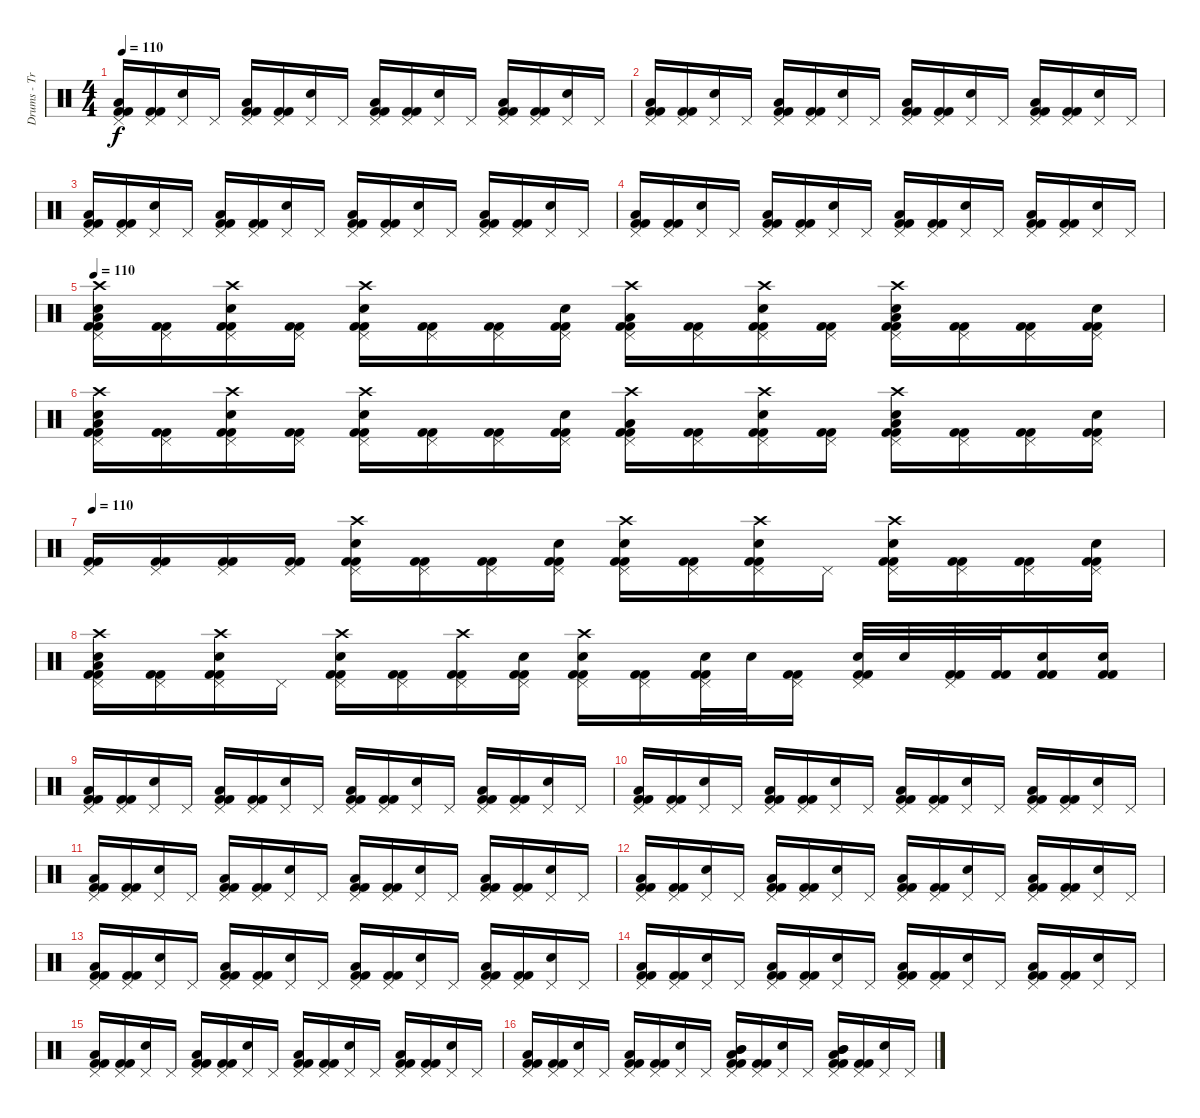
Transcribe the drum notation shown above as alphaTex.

\track ("Drums - Travis Barker" "Drums - Tr") {instrument percussion}
\staff {score}
\articulation defaults
\ts (4 4)
\tempo 110
\clef neutral
\ks c
("Pedal Hi-Hat (hit)" "Low Tom (hit)" "Kick (hit) 2" "Kick (hit) 2").16{dy f} ("Pedal Hi-Hat (hit)" "Kick (hit) 2" "Kick (hit) 2").16 ("Pedal Hi-Hat (hit)" "Electric Snare (hit)").16 "Pedal Hi-Hat (hit)".16 ("Pedal Hi-Hat (hit)" "Low Tom (hit)" "Kick (hit) 2" "Kick (hit) 2").16 ("Pedal Hi-Hat (hit)" "Kick (hit) 2" "Kick (hit) 2").16 ("Pedal Hi-Hat (hit)" "Electric Snare (hit)").16 "Pedal Hi-Hat (hit)".16 ("Pedal Hi-Hat (hit)" "Low Tom (hit)" "Kick (hit) 2" "Kick (hit) 2").16 ("Pedal Hi-Hat (hit)" "Kick (hit) 2" "Kick (hit) 2").16 ("Pedal Hi-Hat (hit)" "Electric Snare (hit)").16 "Pedal Hi-Hat (hit)".16 ("Pedal Hi-Hat (hit)" "Low Tom (hit)" "Kick (hit) 2" "Kick (hit) 2").16 ("Pedal Hi-Hat (hit)" "Kick (hit) 2" "Kick (hit) 2").16 ("Pedal Hi-Hat (hit)" "Electric Snare (hit)").16 "Pedal Hi-Hat (hit)".16 |
("Pedal Hi-Hat (hit)" "Low Tom (hit)" "Kick (hit) 2" "Kick (hit) 2").16 ("Pedal Hi-Hat (hit)" "Kick (hit) 2" "Kick (hit) 2").16 ("Pedal Hi-Hat (hit)" "Electric Snare (hit)").16 "Pedal Hi-Hat (hit)".16 ("Pedal Hi-Hat (hit)" "Low Tom (hit)" "Kick (hit) 2" "Kick (hit) 2").16 ("Pedal Hi-Hat (hit)" "Kick (hit) 2" "Kick (hit) 2").16 ("Pedal Hi-Hat (hit)" "Electric Snare (hit)").16 "Pedal Hi-Hat (hit)".16 ("Pedal Hi-Hat (hit)" "Low Tom (hit)" "Kick (hit) 2" "Kick (hit) 2").16 ("Pedal Hi-Hat (hit)" "Kick (hit) 2" "Kick (hit) 2").16 ("Pedal Hi-Hat (hit)" "Electric Snare (hit)").16 "Pedal Hi-Hat (hit)".16 ("Pedal Hi-Hat (hit)" "Low Tom (hit)" "Kick (hit) 2" "Kick (hit) 2").16 ("Pedal Hi-Hat (hit)" "Kick (hit) 2" "Kick (hit) 2").16 ("Pedal Hi-Hat (hit)" "Electric Snare (hit)").16 "Pedal Hi-Hat (hit)".16 |
("Pedal Hi-Hat (hit)" "Low Tom (hit)" "Kick (hit) 2" "Kick (hit) 2").16 ("Pedal Hi-Hat (hit)" "Kick (hit) 2" "Kick (hit) 2").16 ("Pedal Hi-Hat (hit)" "Electric Snare (hit)").16 "Pedal Hi-Hat (hit)".16 ("Pedal Hi-Hat (hit)" "Low Tom (hit)" "Kick (hit) 2" "Kick (hit) 2").16 ("Pedal Hi-Hat (hit)" "Kick (hit) 2" "Kick (hit) 2").16 ("Pedal Hi-Hat (hit)" "Electric Snare (hit)").16 "Pedal Hi-Hat (hit)".16 ("Pedal Hi-Hat (hit)" "Low Tom (hit)" "Kick (hit) 2" "Kick (hit) 2").16 ("Pedal Hi-Hat (hit)" "Kick (hit) 2" "Kick (hit) 2").16 ("Pedal Hi-Hat (hit)" "Electric Snare (hit)").16 "Pedal Hi-Hat (hit)".16 ("Pedal Hi-Hat (hit)" "Low Tom (hit)" "Kick (hit) 2" "Kick (hit) 2").16 ("Pedal Hi-Hat (hit)" "Kick (hit) 2" "Kick (hit) 2").16 ("Pedal Hi-Hat (hit)" "Electric Snare (hit)").16 "Pedal Hi-Hat (hit)".16 |
("Pedal Hi-Hat (hit)" "Low Tom (hit)" "Kick (hit) 2" "Kick (hit) 2").16 ("Pedal Hi-Hat (hit)" "Kick (hit) 2" "Kick (hit) 2").16 ("Pedal Hi-Hat (hit)" "Electric Snare (hit)").16 "Pedal Hi-Hat (hit)".16 ("Pedal Hi-Hat (hit)" "Low Tom (hit)" "Kick (hit) 2" "Kick (hit) 2").16 ("Pedal Hi-Hat (hit)" "Kick (hit) 2" "Kick (hit) 2").16 ("Pedal Hi-Hat (hit)" "Electric Snare (hit)").16 "Pedal Hi-Hat (hit)".16 ("Pedal Hi-Hat (hit)" "Low Tom (hit)" "Kick (hit) 2" "Kick (hit) 2").16 ("Pedal Hi-Hat (hit)" "Kick (hit) 2" "Kick (hit) 2").16 ("Pedal Hi-Hat (hit)" "Electric Snare (hit)").16 "Pedal Hi-Hat (hit)".16 ("Pedal Hi-Hat (hit)" "Low Tom (hit)" "Kick (hit) 2" "Kick (hit) 2").16 ("Pedal Hi-Hat (hit)" "Kick (hit) 2" "Kick (hit) 2").16 ("Pedal Hi-Hat (hit)" "Electric Snare (hit)").16 "Pedal Hi-Hat (hit)".16 |
\tempo 110
("Pedal Hi-Hat (hit)" "Crash high (hit)" "Low Tom (hit)" "Electric Snare (hit)" "Kick (hit) 2" "Kick (hit) 2").16 ("Pedal Hi-Hat (hit)" "Kick (hit) 2" "Kick (hit) 2").16 ("Pedal Hi-Hat (hit)" "Crash high (hit)" "Electric Snare (hit)" "Kick (hit) 2" "Kick (hit) 2").16 ("Pedal Hi-Hat (hit)" "Kick (hit) 2" "Kick (hit) 2").16 ("Pedal Hi-Hat (hit)" "Crash high (hit)" "Electric Snare (hit)" "Kick (hit) 2" "Kick (hit) 2").16 ("Pedal Hi-Hat (hit)" "Kick (hit) 2" "Kick (hit) 2").16 ("Pedal Hi-Hat (hit)" "Kick (hit) 2" "Kick (hit) 2").16 ("Pedal Hi-Hat (hit)" "Electric Snare (hit)" "Kick (hit) 2" "Kick (hit) 2").16 ("Pedal Hi-Hat (hit)" "Crash high (hit)" "Low Tom (hit)" "Kick (hit) 2" "Kick (hit) 2").16 ("Pedal Hi-Hat (hit)" "Kick (hit) 2" "Kick (hit) 2").16 ("Pedal Hi-Hat (hit)" "Crash high (hit)" "Electric Snare (hit)" "Kick (hit) 2" "Kick (hit) 2").16 ("Pedal Hi-Hat (hit)" "Kick (hit) 2" "Kick (hit) 2").16 ("Pedal Hi-Hat (hit)" "Crash high (hit)" "Low Tom (hit)" "Electric Snare (hit)" "Kick (hit) 2" "Kick (hit) 2").16 ("Pedal Hi-Hat (hit)" "Kick (hit) 2" "Kick (hit) 2").16 ("Pedal Hi-Hat (hit)" "Kick (hit) 2" "Kick (hit) 2").16 ("Pedal Hi-Hat (hit)" "Electric Snare (hit)" "Kick (hit) 2" "Kick (hit) 2").16 |
("Pedal Hi-Hat (hit)" "Crash high (hit)" "Low Tom (hit)" "Electric Snare (hit)" "Kick (hit) 2" "Kick (hit) 2").16 ("Pedal Hi-Hat (hit)" "Kick (hit) 2" "Kick (hit) 2").16 ("Pedal Hi-Hat (hit)" "Crash high (hit)" "Electric Snare (hit)" "Kick (hit) 2" "Kick (hit) 2").16 ("Pedal Hi-Hat (hit)" "Kick (hit) 2" "Kick (hit) 2").16 ("Pedal Hi-Hat (hit)" "Crash high (hit)" "Electric Snare (hit)" "Kick (hit) 2" "Kick (hit) 2").16 ("Pedal Hi-Hat (hit)" "Kick (hit) 2" "Kick (hit) 2").16 ("Pedal Hi-Hat (hit)" "Kick (hit) 2" "Kick (hit) 2").16 ("Pedal Hi-Hat (hit)" "Electric Snare (hit)" "Kick (hit) 2" "Kick (hit) 2").16 ("Pedal Hi-Hat (hit)" "Crash high (hit)" "Low Tom (hit)" "Kick (hit) 2" "Kick (hit) 2").16 ("Pedal Hi-Hat (hit)" "Kick (hit) 2" "Kick (hit) 2").16 ("Pedal Hi-Hat (hit)" "Crash high (hit)" "Electric Snare (hit)" "Kick (hit) 2" "Kick (hit) 2").16 ("Pedal Hi-Hat (hit)" "Kick (hit) 2" "Kick (hit) 2").16 ("Pedal Hi-Hat (hit)" "Crash high (hit)" "Low Tom (hit)" "Electric Snare (hit)" "Kick (hit) 2" "Kick (hit) 2").16 ("Pedal Hi-Hat (hit)" "Kick (hit) 2" "Kick (hit) 2").16 ("Pedal Hi-Hat (hit)" "Kick (hit) 2" "Kick (hit) 2").16 ("Pedal Hi-Hat (hit)" "Electric Snare (hit)" "Kick (hit) 2" "Kick (hit) 2").16 |
\tempo 110
("Pedal Hi-Hat (hit)" "Kick (hit) 2" "Kick (hit) 2").16 ("Pedal Hi-Hat (hit)" "Kick (hit) 2" "Kick (hit) 2").16 ("Pedal Hi-Hat (hit)" "Kick (hit) 2" "Kick (hit) 2").16 ("Pedal Hi-Hat (hit)" "Kick (hit) 2" "Kick (hit) 2").16 ("Pedal Hi-Hat (hit)" "Crash high (hit)" "Electric Snare (hit)" "Kick (hit) 2" "Kick (hit) 2").16 ("Pedal Hi-Hat (hit)" "Kick (hit) 2" "Kick (hit) 2").16 ("Pedal Hi-Hat (hit)" "Kick (hit) 2" "Kick (hit) 2").16 ("Pedal Hi-Hat (hit)" "Electric Snare (hit)" "Kick (hit) 2" "Kick (hit) 2").16 ("Pedal Hi-Hat (hit)" "Crash high (hit)" "Electric Snare (hit)" "Kick (hit) 2" "Kick (hit) 2").16 ("Pedal Hi-Hat (hit)" "Kick (hit) 2" "Kick (hit) 2").16 ("Pedal Hi-Hat (hit)" "Crash high (hit)" "Electric Snare (hit)" "Kick (hit) 2" "Kick (hit) 2").16 "Pedal Hi-Hat (hit)".16 ("Pedal Hi-Hat (hit)" "Crash high (hit)" "Electric Snare (hit)" "Kick (hit) 2" "Kick (hit) 2").16 ("Pedal Hi-Hat (hit)" "Kick (hit) 2" "Kick (hit) 2").16 ("Pedal Hi-Hat (hit)" "Kick (hit) 2" "Kick (hit) 2").16 ("Pedal Hi-Hat (hit)" "Electric Snare (hit)" "Kick (hit) 2" "Kick (hit) 2").16 |
("Pedal Hi-Hat (hit)" "Crash high (hit)" "Low Tom (hit)" "Electric Snare (hit)" "Kick (hit) 2" "Kick (hit) 2").16 ("Pedal Hi-Hat (hit)" "Kick (hit) 2" "Kick (hit) 2").16 ("Pedal Hi-Hat (hit)" "Crash high (hit)" "Electric Snare (hit)" "Kick (hit) 2" "Kick (hit) 2").16 "Pedal Hi-Hat (hit)".16 ("Pedal Hi-Hat (hit)" "Crash high (hit)" "Electric Snare (hit)" "Kick (hit) 2" "Kick (hit) 2").16 ("Pedal Hi-Hat (hit)" "Kick (hit) 2" "Kick (hit) 2").16 ("Pedal Hi-Hat (hit)" "Crash high (hit)" "Kick (hit) 2" "Kick (hit) 2").16 ("Pedal Hi-Hat (hit)" "Electric Snare (hit)" "Kick (hit) 2" "Kick (hit) 2").16 ("Pedal Hi-Hat (hit)" "Crash high (hit)" "Electric Snare (hit)" "Kick (hit) 2" "Kick (hit) 2").16 ("Pedal Hi-Hat (hit)" "Kick (hit) 2" "Kick (hit) 2").16 ("Pedal Hi-Hat (hit)" "Electric Snare (hit)" "Kick (hit) 2" "Kick (hit) 2").32 "Electric Snare (hit)".32 ("Pedal Hi-Hat (hit)" "Kick (hit) 2" "Kick (hit) 2").16 ("Pedal Hi-Hat (hit)" "Electric Snare (hit)" "Kick (hit) 2" "Kick (hit) 2").32 "Electric Snare (hit)".32 ("Pedal Hi-Hat (hit)" "Kick (hit) 2" "Kick (hit) 2").32 ("Kick (hit) 2" "Kick (hit) 2").32 ("Electric Snare (hit)" "Kick (hit) 2" "Kick (hit) 2").16 ("Electric Snare (hit)" "Kick (hit) 2" "Kick (hit) 2").16 |
("Pedal Hi-Hat (hit)" "Low Tom (hit)" "Kick (hit) 2" "Kick (hit) 2").16 ("Pedal Hi-Hat (hit)" "Kick (hit) 2" "Kick (hit) 2").16 ("Pedal Hi-Hat (hit)" "Electric Snare (hit)").16 "Pedal Hi-Hat (hit)".16 ("Pedal Hi-Hat (hit)" "Low Tom (hit)" "Kick (hit) 2" "Kick (hit) 2").16 ("Pedal Hi-Hat (hit)" "Kick (hit) 2" "Kick (hit) 2").16 ("Pedal Hi-Hat (hit)" "Electric Snare (hit)").16 "Pedal Hi-Hat (hit)".16 ("Pedal Hi-Hat (hit)" "Low Tom (hit)" "Kick (hit) 2" "Kick (hit) 2").16 ("Pedal Hi-Hat (hit)" "Kick (hit) 2" "Kick (hit) 2").16 ("Pedal Hi-Hat (hit)" "Electric Snare (hit)").16 "Pedal Hi-Hat (hit)".16 ("Pedal Hi-Hat (hit)" "Low Tom (hit)" "Kick (hit) 2" "Kick (hit) 2").16 ("Pedal Hi-Hat (hit)" "Kick (hit) 2" "Kick (hit) 2").16 ("Pedal Hi-Hat (hit)" "Electric Snare (hit)").16 "Pedal Hi-Hat (hit)".16 |
("Pedal Hi-Hat (hit)" "Low Tom (hit)" "Kick (hit) 2" "Kick (hit) 2").16 ("Pedal Hi-Hat (hit)" "Kick (hit) 2" "Kick (hit) 2").16 ("Pedal Hi-Hat (hit)" "Electric Snare (hit)").16 "Pedal Hi-Hat (hit)".16 ("Pedal Hi-Hat (hit)" "Low Tom (hit)" "Kick (hit) 2" "Kick (hit) 2").16 ("Pedal Hi-Hat (hit)" "Kick (hit) 2" "Kick (hit) 2").16 ("Pedal Hi-Hat (hit)" "Electric Snare (hit)").16 "Pedal Hi-Hat (hit)".16 ("Pedal Hi-Hat (hit)" "Low Tom (hit)" "Kick (hit) 2" "Kick (hit) 2").16 ("Pedal Hi-Hat (hit)" "Kick (hit) 2" "Kick (hit) 2").16 ("Pedal Hi-Hat (hit)" "Electric Snare (hit)").16 "Pedal Hi-Hat (hit)".16 ("Pedal Hi-Hat (hit)" "Low Tom (hit)" "Kick (hit) 2" "Kick (hit) 2").16 ("Pedal Hi-Hat (hit)" "Kick (hit) 2" "Kick (hit) 2").16 ("Pedal Hi-Hat (hit)" "Electric Snare (hit)").16 "Pedal Hi-Hat (hit)".16 |
("Pedal Hi-Hat (hit)" "Low Tom (hit)" "Kick (hit) 2" "Kick (hit) 2").16 ("Pedal Hi-Hat (hit)" "Kick (hit) 2" "Kick (hit) 2").16 ("Pedal Hi-Hat (hit)" "Electric Snare (hit)").16 "Pedal Hi-Hat (hit)".16 ("Pedal Hi-Hat (hit)" "Low Tom (hit)" "Kick (hit) 2" "Kick (hit) 2").16 ("Pedal Hi-Hat (hit)" "Kick (hit) 2" "Kick (hit) 2").16 ("Pedal Hi-Hat (hit)" "Electric Snare (hit)").16 "Pedal Hi-Hat (hit)".16 ("Pedal Hi-Hat (hit)" "Low Tom (hit)" "Kick (hit) 2" "Kick (hit) 2").16 ("Pedal Hi-Hat (hit)" "Kick (hit) 2" "Kick (hit) 2").16 ("Pedal Hi-Hat (hit)" "Electric Snare (hit)").16 "Pedal Hi-Hat (hit)".16 ("Pedal Hi-Hat (hit)" "Low Tom (hit)" "Kick (hit) 2" "Kick (hit) 2").16 ("Pedal Hi-Hat (hit)" "Kick (hit) 2" "Kick (hit) 2").16 ("Pedal Hi-Hat (hit)" "Electric Snare (hit)").16 "Pedal Hi-Hat (hit)".16 |
("Pedal Hi-Hat (hit)" "Low Tom (hit)" "Kick (hit) 2" "Kick (hit) 2").16 ("Pedal Hi-Hat (hit)" "Kick (hit) 2" "Kick (hit) 2").16 ("Pedal Hi-Hat (hit)" "Electric Snare (hit)").16 "Pedal Hi-Hat (hit)".16 ("Pedal Hi-Hat (hit)" "Low Tom (hit)" "Kick (hit) 2" "Kick (hit) 2").16 ("Pedal Hi-Hat (hit)" "Kick (hit) 2" "Kick (hit) 2").16 ("Pedal Hi-Hat (hit)" "Electric Snare (hit)").16 "Pedal Hi-Hat (hit)".16 ("Pedal Hi-Hat (hit)" "Low Tom (hit)" "Kick (hit) 2" "Kick (hit) 2").16 ("Pedal Hi-Hat (hit)" "Kick (hit) 2" "Kick (hit) 2").16 ("Pedal Hi-Hat (hit)" "Electric Snare (hit)").16 "Pedal Hi-Hat (hit)".16 ("Pedal Hi-Hat (hit)" "Low Tom (hit)" "Kick (hit) 2" "Kick (hit) 2").16 ("Pedal Hi-Hat (hit)" "Kick (hit) 2" "Kick (hit) 2").16 ("Pedal Hi-Hat (hit)" "Electric Snare (hit)").16 "Pedal Hi-Hat (hit)".16 |
("Pedal Hi-Hat (hit)" "Low Tom (hit)" "Kick (hit) 2" "Kick (hit) 2").16 ("Pedal Hi-Hat (hit)" "Kick (hit) 2" "Kick (hit) 2").16 ("Pedal Hi-Hat (hit)" "Electric Snare (hit)").16 "Pedal Hi-Hat (hit)".16 ("Pedal Hi-Hat (hit)" "Low Tom (hit)" "Kick (hit) 2" "Kick (hit) 2").16 ("Pedal Hi-Hat (hit)" "Kick (hit) 2" "Kick (hit) 2").16 ("Pedal Hi-Hat (hit)" "Electric Snare (hit)").16 "Pedal Hi-Hat (hit)".16 ("Pedal Hi-Hat (hit)" "Low Tom (hit)" "Kick (hit) 2" "Kick (hit) 2").16 ("Pedal Hi-Hat (hit)" "Kick (hit) 2" "Kick (hit) 2").16 ("Pedal Hi-Hat (hit)" "Electric Snare (hit)").16 "Pedal Hi-Hat (hit)".16 ("Pedal Hi-Hat (hit)" "Low Tom (hit)" "Kick (hit) 2" "Kick (hit) 2").16 ("Pedal Hi-Hat (hit)" "Kick (hit) 2" "Kick (hit) 2").16 ("Pedal Hi-Hat (hit)" "Electric Snare (hit)").16 "Pedal Hi-Hat (hit)".16 |
("Pedal Hi-Hat (hit)" "Low Tom (hit)" "Kick (hit) 2" "Kick (hit) 2").16 ("Pedal Hi-Hat (hit)" "Kick (hit) 2" "Kick (hit) 2").16 ("Pedal Hi-Hat (hit)" "Electric Snare (hit)").16 "Pedal Hi-Hat (hit)".16 ("Pedal Hi-Hat (hit)" "Low Tom (hit)" "Kick (hit) 2" "Kick (hit) 2").16 ("Pedal Hi-Hat (hit)" "Kick (hit) 2" "Kick (hit) 2").16 ("Pedal Hi-Hat (hit)" "Electric Snare (hit)").16 "Pedal Hi-Hat (hit)".16 ("Pedal Hi-Hat (hit)" "Low Tom (hit)" "Kick (hit) 2" "Kick (hit) 2").16 ("Pedal Hi-Hat (hit)" "Kick (hit) 2" "Kick (hit) 2").16 ("Pedal Hi-Hat (hit)" "Electric Snare (hit)").16 "Pedal Hi-Hat (hit)".16 ("Pedal Hi-Hat (hit)" "Low Tom (hit)" "Kick (hit) 2" "Kick (hit) 2").16 ("Pedal Hi-Hat (hit)" "Kick (hit) 2" "Kick (hit) 2").16 ("Pedal Hi-Hat (hit)" "Electric Snare (hit)").16 "Pedal Hi-Hat (hit)".16 |
("Pedal Hi-Hat (hit)" "Low Tom (hit)" "Kick (hit) 2" "Kick (hit) 2").16 ("Pedal Hi-Hat (hit)" "Kick (hit) 2" "Kick (hit) 2").16 ("Pedal Hi-Hat (hit)" "Electric Snare (hit)").16 "Pedal Hi-Hat (hit)".16 ("Pedal Hi-Hat (hit)" "Low Tom (hit)" "Kick (hit) 2" "Kick (hit) 2").16 ("Pedal Hi-Hat (hit)" "Kick (hit) 2" "Kick (hit) 2").16 ("Pedal Hi-Hat (hit)" "Electric Snare (hit)").16 "Pedal Hi-Hat (hit)".16 ("Pedal Hi-Hat (hit)" "Low Tom (hit)" "Kick (hit) 2" "Kick (hit) 2").16 ("Pedal Hi-Hat (hit)" "Kick (hit) 2" "Kick (hit) 2").16 ("Pedal Hi-Hat (hit)" "Electric Snare (hit)").16 "Pedal Hi-Hat (hit)".16 ("Pedal Hi-Hat (hit)" "Low Tom (hit)" "Kick (hit) 2" "Kick (hit) 2").16 ("Pedal Hi-Hat (hit)" "Kick (hit) 2" "Kick (hit) 2").16 ("Pedal Hi-Hat (hit)" "Electric Snare (hit)").16 "Pedal Hi-Hat (hit)".16 |
("Pedal Hi-Hat (hit)" "Low Tom (hit)" "Kick (hit) 2" "Kick (hit) 2").16 ("Pedal Hi-Hat (hit)" "Kick (hit) 2" "Kick (hit) 2").16 ("Pedal Hi-Hat (hit)" "Electric Snare (hit)").16 "Pedal Hi-Hat (hit)".16 ("Pedal Hi-Hat (hit)" "Low Tom (hit)" "Kick (hit) 2" "Kick (hit) 2").16 ("Pedal Hi-Hat (hit)" "Kick (hit) 2" "Kick (hit) 2").16 ("Pedal Hi-Hat (hit)" "Electric Snare (hit)").16 "Pedal Hi-Hat (hit)".16 ("Pedal Hi-Hat (hit)" "Mid Tom (hit)" "Low Tom (hit)" "Mid Tom (hit)" "Kick (hit) 2" "Kick (hit) 2").16 ("Pedal Hi-Hat (hit)" "Kick (hit) 2" "Kick (hit) 2").16 ("Pedal Hi-Hat (hit)" "Electric Snare (hit)").16 "Pedal Hi-Hat (hit)".16 ("Pedal Hi-Hat (hit)" "Mid Tom (hit)" "Low Tom (hit)" "Mid Tom (hit)" "Kick (hit) 2" "Kick (hit) 2").16 ("Pedal Hi-Hat (hit)" "Kick (hit) 2" "Kick (hit) 2").16 ("Pedal Hi-Hat (hit)" "Electric Snare (hit)").16 "Pedal Hi-Hat (hit)".16
